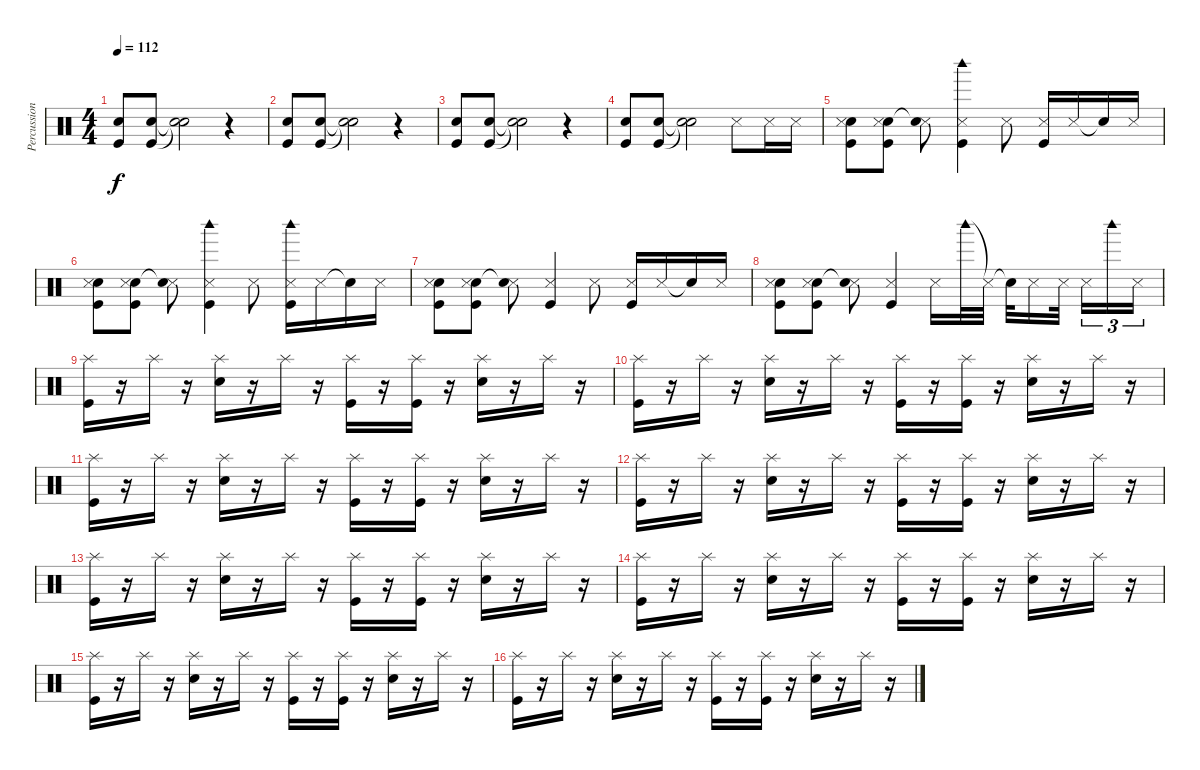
\track ("Percussions" "Percussion") {instrument percussion}
\staff {score}
\articulation defaults
\ts (4 4)
\tempo 112
\clef neutral
\ks c
("Electric Snare (hit)" "Kick (hit)").8{dy f} ("Electric Snare (hit)" "Kick (hit)").8 ("Snare (hit)"{t} "Snare (hit)"{t}).2 r.4 |
("Electric Snare (hit)" "Kick (hit)").8 ("Electric Snare (hit)" "Kick (hit)").8 ("Snare (hit)"{t} "Snare (hit)"{t}).2 r.4 |
("Electric Snare (hit)" "Kick (hit)").8 ("Electric Snare (hit)" "Kick (hit)").8 ("Snare (hit)"{t} "Snare (hit)"{t}).2 r.4 |
("Electric Snare (hit)" "Kick (hit)").8 ("Electric Snare (hit)" "Kick (hit)").8 ("Snare (hit)"{t} "Snare (hit)"{t}).2 "Metronome (hit)".8 "Metronome (hit)".16 "Metronome (hit)".16 |
("Electric Snare (hit)" "Metronome (hit)" "Kick (hit)").8 ("Electric Snare (hit)" "Metronome (hit)" "Kick (hit)").8 ("Metronome (hit)" "Snare (hit)"{t}).8 ("Woodblock high (hit)" "Metronome (hit)" "Kick (hit)").4 "Metronome (hit)".8 ("Metronome (hit)" "Kick (hit)").16 "Metronome (hit)".16 "Snare (hit)"{t}.16 "Metronome (hit)".16 |
("Electric Snare (hit)" "Metronome (hit)" "Kick (hit)").8 ("Electric Snare (hit)" "Metronome (hit)" "Kick (hit)").8 ("Metronome (hit)" "Snare (hit)"{t}).8 ("Woodblock high (hit)" "Metronome (hit)" "Kick (hit)").4 "Metronome (hit)".8 ("Woodblock high (hit)" "Metronome (hit)" "Kick (hit)").16 "Metronome (hit)".16 "Snare (hit)"{t}.16 "Metronome (hit)".16 |
("Electric Snare (hit)" "Metronome (hit)" "Kick (hit)").8 ("Electric Snare (hit)" "Metronome (hit)" "Kick (hit)").8 ("Metronome (hit)" "Snare (hit)"{t}).8 ("Metronome (hit)" "Kick (hit)").4 "Metronome (hit)".8 ("Metronome (hit)" "Kick (hit)").16 "Metronome (hit)".16 "Snare (hit)"{t}.16 "Metronome (hit)".16 |
("Electric Snare (hit)" "Metronome (hit)" "Kick (hit)").8 ("Electric Snare (hit)" "Metronome (hit)" "Kick (hit)").8 ("Metronome (hit)" "Snare (hit)"{t}).8 ("Metronome (hit)" "Kick (hit)").4 "Metronome (hit)".16 "Woodblock high (hit)".32 "Metronome (hit)"{t}.32 "Snare (hit)"{t}.32 "Metronome (hit)".16 "Metronome (hit)".32 "Metronome (hit)".16{tu (3 2)} "Woodblock high (hit)".16{tu (3 2)} "Metronome (hit)".16{tu (3 2)} |
("Splash (hit)" "Kick (hit)").16 r.16 "Splash (hit)".16 r.16 ("Splash (hit)" "Electric Snare (hit)").16 r.16 "Splash (hit)".16 r.16 ("Splash (hit)" "Kick (hit)").16 r.16 ("Splash (hit)" "Kick (hit)").16 r.16 ("Splash (hit)" "Electric Snare (hit)").16 r.16 "Splash (hit)".16 r.16 |
("Splash (hit)" "Kick (hit)").16 r.16 "Splash (hit)".16 r.16 ("Splash (hit)" "Electric Snare (hit)").16 r.16 "Splash (hit)".16 r.16 ("Splash (hit)" "Kick (hit)").16 r.16 ("Splash (hit)" "Kick (hit)").16 r.16 ("Splash (hit)" "Electric Snare (hit)").16 r.16 "Splash (hit)".16 r.16 |
("Splash (hit)" "Kick (hit)").16 r.16 "Splash (hit)".16 r.16 ("Splash (hit)" "Electric Snare (hit)").16 r.16 "Splash (hit)".16 r.16 ("Splash (hit)" "Kick (hit)").16 r.16 ("Splash (hit)" "Kick (hit)").16 r.16 ("Splash (hit)" "Electric Snare (hit)").16 r.16 "Splash (hit)".16 r.16 |
("Splash (hit)" "Kick (hit)").16 r.16 "Splash (hit)".16 r.16 ("Splash (hit)" "Electric Snare (hit)").16 r.16 "Splash (hit)".16 r.16 ("Splash (hit)" "Kick (hit)").16 r.16 ("Splash (hit)" "Kick (hit)").16 r.16 ("Splash (hit)" "Electric Snare (hit)").16 r.16 "Splash (hit)".16 r.16 |
("Splash (hit)" "Kick (hit)").16 r.16 "Splash (hit)".16 r.16 ("Splash (hit)" "Electric Snare (hit)").16 r.16 "Splash (hit)".16 r.16 ("Splash (hit)" "Kick (hit)").16 r.16 ("Splash (hit)" "Kick (hit)").16 r.16 ("Splash (hit)" "Electric Snare (hit)").16 r.16 "Splash (hit)".16 r.16 |
("Splash (hit)" "Kick (hit)").16 r.16 "Splash (hit)".16 r.16 ("Splash (hit)" "Electric Snare (hit)").16 r.16 "Splash (hit)".16 r.16 ("Splash (hit)" "Kick (hit)").16 r.16 ("Splash (hit)" "Kick (hit)").16 r.16 ("Splash (hit)" "Electric Snare (hit)").16 r.16 "Splash (hit)".16 r.16 |
("Splash (hit)" "Kick (hit)").16 r.16 "Splash (hit)".16 r.16 ("Splash (hit)" "Electric Snare (hit)").16 r.16 "Splash (hit)".16 r.16 ("Splash (hit)" "Kick (hit)").16 r.16 ("Splash (hit)" "Kick (hit)").16 r.16 ("Splash (hit)" "Electric Snare (hit)").16 r.16 "Splash (hit)".16 r.16 |
("Splash (hit)" "Kick (hit)").16 r.16 "Splash (hit)".16 r.16 ("Splash (hit)" "Electric Snare (hit)").16 r.16 "Splash (hit)".16 r.16 ("Splash (hit)" "Kick (hit)").16 r.16 ("Splash (hit)" "Kick (hit)").16 r.16 ("Splash (hit)" "Electric Snare (hit)").16 r.16 "Splash (hit)".16 r.16
